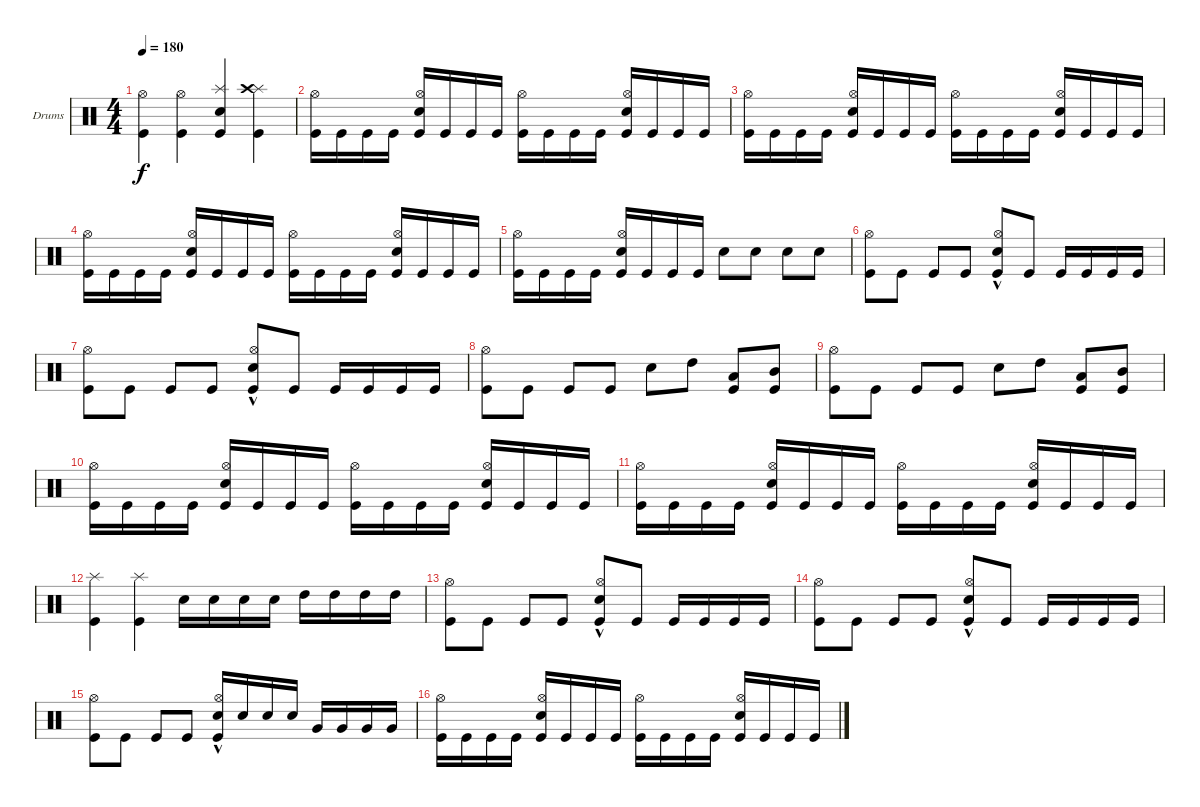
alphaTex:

\defaultSystemsLayout 4
\bracketExtendMode groupsimilarinstruments
\firstSystemTrackNameOrientation horizontal
\otherSystemsTrackNameOrientation horizontal
\track ("Drumkit" "Drums") {instrument percussion}
\staff {score}
\articulation defaults
\ts (4 4)
\tempo 180
\clef neutral
\scale
0.333333
\ks c
("Kick (hit)" "Hi-Hat (open)").4{dy f} ("Kick (hit)" "Hi-Hat (open)").4 ("Kick (hit)" "Splash (hit)" "Snare (hit) 2").4 ("Splash (hit)" "Crash high (hit)" "Kick (hit)").4 |
\scale
0.333333 ("Kick (hit)" "Hi-Hat (open)").16 "Kick (hit)".16 "Kick (hit)".16 "Kick (hit)".16 ("Kick (hit)" "Hi-Hat (open)" "Snare (hit) 2").16 "Kick (hit)".16 "Kick (hit)".16 "Kick (hit)".16 ("Kick (hit)" "Hi-Hat (open)").16 "Kick (hit)".16 "Kick (hit)".16 "Kick (hit)".16 ("Kick (hit)" "Hi-Hat (open)" "Snare (hit) 2").16 "Kick (hit)".16 "Kick (hit)".16 "Kick (hit)".16 |
\scale
0.333333 ("Kick (hit)" "Hi-Hat (open)").16 "Kick (hit)".16 "Kick (hit)".16 "Kick (hit)".16 ("Kick (hit)" "Hi-Hat (open)" "Snare (hit) 2").16 "Kick (hit)".16 "Kick (hit)".16 "Kick (hit)".16 ("Kick (hit)" "Hi-Hat (open)").16 "Kick (hit)".16 "Kick (hit)".16 "Kick (hit)".16 ("Kick (hit)" "Hi-Hat (open)" "Snare (hit) 2").16 "Kick (hit)".16 "Kick (hit)".16 "Kick (hit)".16 |
\scale
0.333333 ("Kick (hit)" "Hi-Hat (open)").16 "Kick (hit)".16 "Kick (hit)".16 "Kick (hit)".16 ("Kick (hit)" "Hi-Hat (open)" "Snare (hit) 2").16 "Kick (hit)".16 "Kick (hit)".16 "Kick (hit)".16 ("Kick (hit)" "Hi-Hat (open)").16 "Kick (hit)".16 "Kick (hit)".16 "Kick (hit)".16 ("Kick (hit)" "Hi-Hat (open)" "Snare (hit) 2").16 "Kick (hit)".16 "Kick (hit)".16 "Kick (hit)".16 |
\scale
0.333333 ("Kick (hit)" "Hi-Hat (open)").16 "Kick (hit)".16 "Kick (hit)".16 "Kick (hit)".16 ("Kick (hit)" "Hi-Hat (open)" "Snare (hit) 2").16 "Kick (hit)".16 "Kick (hit)".16 "Kick (hit)".16 "Snare (hit) 2".8 "Snare (hit) 2".8 "Snare (hit) 2".8 "Snare (hit) 2".8 |
\scale
0.333333 ("Kick (hit)" "Hi-Hat (open)").8 "Kick (hit)".8 "Kick (hit)".8 "Kick (hit)".8 ("Kick (hit)" "Hi-Hat (open)" "Snare (hit) 2"{hac}).8 "Kick (hit)".8 "Kick (hit)".16 "Kick (hit)".16 "Kick (hit)".16 "Kick (hit)".16 |
\scale
0.333333 ("Kick (hit)" "Hi-Hat (open)").8 "Kick (hit)".8 "Kick (hit)".8 "Kick (hit)".8 ("Kick (hit)" "Hi-Hat (open)" "Snare (hit) 2"{hac}).8 "Kick (hit)".8 "Kick (hit)".16 "Kick (hit)".16 "Kick (hit)".16 "Kick (hit)".16 |
\scale
0.333333 ("Kick (hit)" "Hi-Hat (open)").8 "Kick (hit)".8 "Kick (hit)".8 "Kick (hit)".8 "Snare (hit) 2".8 "High Tom (hit)".8 ("Low Tom (hit)" "Kick (hit)").8 ("Mid Tom (hit)" "Kick (hit)").8 |
\scale
0.333333 ("Kick (hit)" "Hi-Hat (open)").8 "Kick (hit)".8 "Kick (hit)".8 "Kick (hit)".8 "Snare (hit) 2".8 "High Tom (hit)".8 ("Low Tom (hit)" "Kick (hit)").8 ("Mid Tom (hit)" "Kick (hit)").8 |
\scale
0.333333 ("Kick (hit)" "Hi-Hat (open)").16 "Kick (hit)".16 "Kick (hit)".16 "Kick (hit)".16 ("Kick (hit)" "Hi-Hat (open)" "Snare (hit) 2").16 "Kick (hit)".16 "Kick (hit)".16 "Kick (hit)".16 ("Kick (hit)" "Hi-Hat (open)").16 "Kick (hit)".16 "Kick (hit)".16 "Kick (hit)".16 ("Kick (hit)" "Hi-Hat (open)" "Snare (hit) 2").16 "Kick (hit)".16 "Kick (hit)".16 "Kick (hit)".16 |
\scale
0.333333 ("Kick (hit)" "Hi-Hat (open)").16 "Kick (hit)".16 "Kick (hit)".16 "Kick (hit)".16 ("Kick (hit)" "Hi-Hat (open)" "Snare (hit) 2").16 "Kick (hit)".16 "Kick (hit)".16 "Kick (hit)".16 ("Kick (hit)" "Hi-Hat (open)").16 "Kick (hit)".16 "Kick (hit)".16 "Kick (hit)".16 ("Kick (hit)" "Hi-Hat (open)" "Snare (hit) 2").16 "Kick (hit)".16 "Kick (hit)".16 "Kick (hit)".16 |
\scale
0.333333 ("Kick (hit)" "Splash (hit)").4 ("Splash (hit)" "Kick (hit)").4 "Snare (hit) 2".16 "Snare (hit) 2".16 "Snare (hit) 2".16 "Snare (hit) 2".16 "High Tom (hit)".16 "High Tom (hit)".16 "High Tom (hit)".16 "High Tom (hit)".16 |
\scale
0.333333 ("Kick (hit)" "Hi-Hat (open)").8 "Kick (hit)".8 "Kick (hit)".8 "Kick (hit)".8 ("Kick (hit)" "Hi-Hat (open)" "Snare (hit) 2"{hac}).8 "Kick (hit)".8 "Kick (hit)".16 "Kick (hit)".16 "Kick (hit)".16 "Kick (hit)".16 |
\scale
0.333333 ("Kick (hit)" "Hi-Hat (open)").8 "Kick (hit)".8 "Kick (hit)".8 "Kick (hit)".8 ("Kick (hit)" "Hi-Hat (open)" "Snare (hit) 2"{hac}).8 "Kick (hit)".8 "Kick (hit)".16 "Kick (hit)".16 "Kick (hit)".16 "Kick (hit)".16 |
\scale
0.333333 ("Kick (hit)" "Hi-Hat (open)").8 "Kick (hit)".8 "Kick (hit)".8 "Kick (hit)".8 ("Kick (hit)" "Hi-Hat (open)" "Snare (hit) 2"{hac}).16 "Snare (hit) 2".16 "Snare (hit) 2".16 "Snare (hit) 2".16 "Very Low Tom (hit)".16 "Very Low Tom (hit)".16 "Very Low Tom (hit)".16 "Very Low Tom (hit)".16 |
\scale
0.333333 ("Kick (hit)" "Hi-Hat (open)").16 "Kick (hit)".16 "Kick (hit)".16 "Kick (hit)".16 ("Kick (hit)" "Hi-Hat (open)" "Snare (hit) 2").16 "Kick (hit)".16 "Kick (hit)".16 "Kick (hit)".16 ("Kick (hit)" "Hi-Hat (open)").16 "Kick (hit)".16 "Kick (hit)".16 "Kick (hit)".16 ("Kick (hit)" "Hi-Hat (open)" "Snare (hit) 2").16 "Kick (hit)".16 "Kick (hit)".16 "Kick (hit)".16
